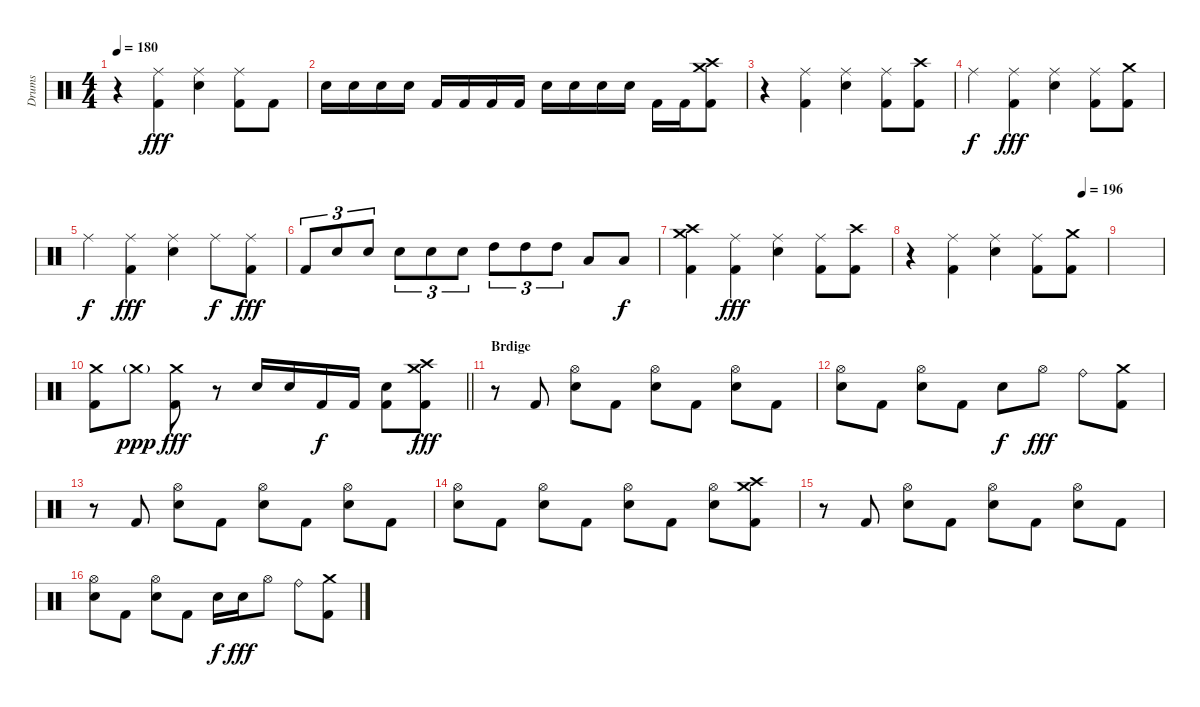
\track ("Drums" "Drums") {instrument percussion}
\staff {score}
\articulation defaults
\ts (4 4)
\tempo 180
\clef neutral
\ks c
r.4{dy fff} ("Ride (middle)" "Kick (hit) 2").4 ("Ride (middle)" "Electric Snare (hit)").4 ("Ride (middle)" "Kick (hit) 2").8 "Kick (hit) 2".8 |
"Electric Snare (hit)".16 "Electric Snare (hit)".16 "Electric Snare (hit)".16 "Electric Snare (hit)".16 "Kick (hit) 2".16 "Kick (hit) 2".16 "Kick (hit) 2".16 "Kick (hit) 2".16 "Electric Snare (hit)".16 "Electric Snare (hit)".16 "Electric Snare (hit)".16 "Electric Snare (hit)".16 "Kick (hit) 2".16 "Kick (hit) 2".16 ("Crash medium (hit)" "Crash high (hit)" "Kick (hit) 2").8 |
r.4 ("Ride (middle)" "Kick (hit) 2").4 ("Ride (middle)" "Electric Snare (hit)").4 ("Ride (middle)" "Kick (hit) 2").8 ("Crash high (hit)" "Kick (hit) 2").8 |
"Ride (middle)".4{dy f} ("Ride (middle)" "Kick (hit) 2").4{dy fff} ("Ride (middle)" "Electric Snare (hit)").4 ("Ride (middle)" "Kick (hit) 2").8 ("Crash medium (hit)" "Kick (hit) 2").8 |
"Ride (middle)".4{dy f} ("Ride (middle)" "Kick (hit) 2").4{dy fff} ("Ride (middle)" "Electric Snare (hit)").4 "Ride (middle)".8{dy f} ("Ride (middle)" "Kick (hit) 2").8{dy fff} |
"Kick (hit) 2".8{tu (3 2)} "Electric Snare (hit)".8{tu (3 2)} "Electric Snare (hit)".8{tu (3 2)} "Electric Snare (hit)".8{tu (3 2)} "Electric Snare (hit)".8{tu (3 2)} "Electric Snare (hit)".8{tu (3 2)} "High Tom (hit)".8{tu (3 2)} "High Tom (hit)".8{tu (3 2)} "High Tom (hit)".8{tu (3 2)} "Low Tom (hit)".8 "Low Tom (hit)".8{dy f} |
("Crash medium (hit)" "Crash high (hit)" "Kick (hit) 2").4 ("Ride (middle)" "Kick (hit) 2").4{dy fff} ("Ride (middle)" "Electric Snare (hit)").4 ("Ride (middle)" "Kick (hit) 2").8 ("Crash high (hit)" "Kick (hit) 2").8 |
\tempo (196 0.875)
r.4 ("Ride (middle)" "Kick (hit) 2").4 ("Ride (middle)" "Electric Snare (hit)").4 ("Ride (middle)" "Kick (hit) 2").8 ("Crash medium (hit)" "Kick (hit) 2").8 |
|
\barLineRight lightlight
("Crash medium (hit)" "Kick (hit) 2").8 "Crash medium (hit)"{g}.8{dy ppp} ("Crash medium (hit)" "Kick (hit) 2").8{dy fff} r.8 "Electric Snare (hit)".16 "Electric Snare (hit)".16 "Kick (hit) 2".16{dy f} "Kick (hit) 2".16 ("Electric Snare (hit)" "Kick (hit) 2").8 ("Crash medium (hit)" "Crash high (hit)" "Kick (hit) 2").8{dy fff} |
\section ("" "Brdige")
r.8 "Kick (hit) 2".8 ("Hi-Hat (open)" "Electric Snare (hit)").8 "Kick (hit) 2".8 ("Hi-Hat (open)" "Electric Snare (hit)").8 "Kick (hit) 2".8 ("Hi-Hat (open)" "Electric Snare (hit)").8 "Kick (hit) 2".8 |
("Hi-Hat (open)" "Electric Snare (hit)").8 "Kick (hit) 2".8 ("Hi-Hat (open)" "Electric Snare (hit)").8 "Kick (hit) 2".8 "Electric Snare (hit)".8{dy f} "Hi-Hat (open)".8{dy fff} "Ride (bell)".8 ("Crash medium (hit)" "Kick (hit) 2").8 |
r.8 "Kick (hit) 2".8 ("Hi-Hat (open)" "Electric Snare (hit)").8 "Kick (hit) 2".8 ("Hi-Hat (open)" "Electric Snare (hit)").8 "Kick (hit) 2".8 ("Hi-Hat (open)" "Electric Snare (hit)").8 "Kick (hit) 2".8 |
("Hi-Hat (open)" "Electric Snare (hit)").8 "Kick (hit) 2".8 ("Hi-Hat (open)" "Electric Snare (hit)").8 "Kick (hit) 2".8 ("Hi-Hat (open)" "Electric Snare (hit)").8 "Kick (hit) 2".8 ("Hi-Hat (open)" "Electric Snare (hit)").8 ("Crash medium (hit)" "Crash high (hit)" "Kick (hit) 2").8 |
r.8 "Kick (hit) 2".8 ("Hi-Hat (open)" "Electric Snare (hit)").8 "Kick (hit) 2".8 ("Hi-Hat (open)" "Electric Snare (hit)").8 "Kick (hit) 2".8 ("Hi-Hat (open)" "Electric Snare (hit)").8 "Kick (hit) 2".8 |
("Hi-Hat (open)" "Electric Snare (hit)").8 "Kick (hit) 2".8 ("Hi-Hat (open)" "Electric Snare (hit)").8 "Kick (hit) 2".8 "Electric Snare (hit)".16{dy f} "Electric Snare (hit)".16{dy fff} "Hi-Hat (open)".8 "Ride (bell)".8 ("Crash medium (hit)" "Kick (hit) 2").8
